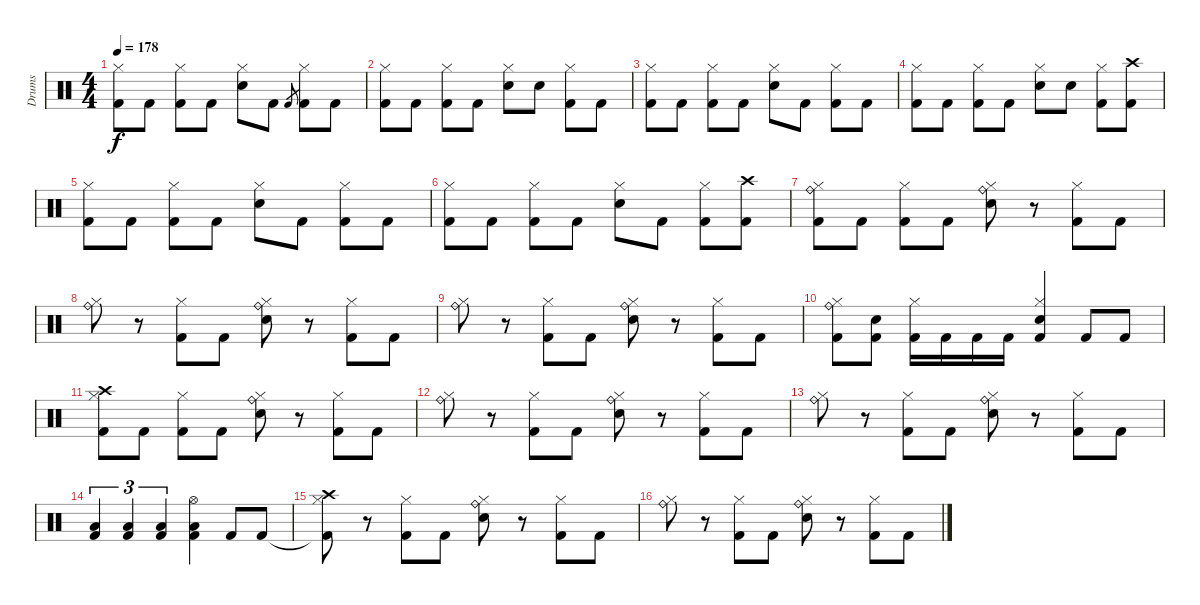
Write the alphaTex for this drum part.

\track ("Drums" "Drums") {instrument percussion}
\staff {score}
\articulation defaults
\ts (4 4)
\tempo 178
\clef neutral
\ks c
("Kick (hit) 2" "Hi-Hat (closed)").8{dy f} "Kick (hit) 2".8 ("Kick (hit) 2" "Hi-Hat (closed)").8 "Kick (hit) 2".8 ("Snare (hit) 2" "Hi-Hat (closed)").8 "Kick (hit) 2".8 "Kick (hit) 2".8{gr} ("Kick (hit) 2" "Hi-Hat (closed)").8 "Kick (hit) 2".8 |
("Kick (hit) 2" "Hi-Hat (closed)").8 "Kick (hit) 2".8 ("Kick (hit) 2" "Hi-Hat (closed)").8 "Kick (hit) 2".8 ("Snare (hit) 2" "Hi-Hat (closed)").8 "Snare (hit) 2".8 ("Kick (hit) 2" "Hi-Hat (closed)").8 "Kick (hit) 2".8 |
("Kick (hit) 2" "Hi-Hat (closed)").8 "Kick (hit) 2".8 ("Kick (hit) 2" "Hi-Hat (closed)").8 "Kick (hit) 2".8 ("Snare (hit) 2" "Hi-Hat (closed)").8 "Kick (hit) 2".8 ("Kick (hit) 2" "Hi-Hat (closed)").8 "Kick (hit) 2".8 |
("Kick (hit) 2" "Hi-Hat (closed)").8 "Kick (hit) 2".8 ("Kick (hit) 2" "Hi-Hat (closed)").8 "Kick (hit) 2".8 ("Snare (hit) 2" "Hi-Hat (closed)").8 "Snare (hit) 2".8 ("Kick (hit) 2" "Hi-Hat (closed)").8 ("Kick (hit) 2" "Crash high (hit)").8 |
("Kick (hit) 2" "Hi-Hat (closed)").8 "Kick (hit) 2".8 ("Kick (hit) 2" "Hi-Hat (closed)").8 "Kick (hit) 2".8 ("Snare (hit) 2" "Hi-Hat (closed)").8 "Kick (hit) 2".8 ("Kick (hit) 2" "Hi-Hat (closed)").8 "Kick (hit) 2".8 |
("Kick (hit) 2" "Hi-Hat (closed)").8 "Kick (hit) 2".8 ("Kick (hit) 2" "Hi-Hat (closed)").8 "Kick (hit) 2".8 ("Snare (hit) 2" "Hi-Hat (closed)").8 "Kick (hit) 2".8 ("Kick (hit) 2" "Hi-Hat (closed)").8 ("Kick (hit) 2" "Crash high (hit)").8 |
("Kick (hit) 2" "Hi-Hat (closed)" "Ride (bell)").8 "Kick (hit) 2".8 ("Kick (hit) 2" "Hi-Hat (closed)").8 "Kick (hit) 2".8 ("Snare (hit) 2" "Hi-Hat (closed)" "Ride (bell)").8 r.8 ("Kick (hit) 2" "Hi-Hat (closed)").8 "Kick (hit) 2".8 |
("Hi-Hat (closed)" "Ride (bell)").8 r.8 ("Kick (hit) 2" "Hi-Hat (closed)").8 "Kick (hit) 2".8 ("Snare (hit) 2" "Hi-Hat (closed)" "Ride (bell)").8 r.8 ("Kick (hit) 2" "Hi-Hat (closed)").8 "Kick (hit) 2".8 |
("Hi-Hat (closed)" "Ride (bell)").8 r.8 ("Kick (hit) 2" "Hi-Hat (closed)").8 "Kick (hit) 2".8 ("Snare (hit) 2" "Hi-Hat (closed)" "Ride (bell)").8 r.8 ("Kick (hit) 2" "Hi-Hat (closed)").8 "Kick (hit) 2".8 |
("Kick (hit) 2" "Hi-Hat (closed)" "Ride (bell)").8 ("Kick (hit) 2" "Snare (hit) 2").8 ("Kick (hit) 2" "Hi-Hat (closed)").16 "Kick (hit) 2".16 "Kick (hit) 2".16 "Kick (hit) 2".16 ("Kick (hit) 2" "Snare (hit) 2" "Hi-Hat (closed)").4 "Kick (hit) 2".8 "Kick (hit) 2".8 |
("Kick (hit) 2" "Hi-Hat (closed)" "Crash high (hit)").8 "Kick (hit) 2".8 ("Kick (hit) 2" "Hi-Hat (closed)").8 "Kick (hit) 2".8 ("Snare (hit) 2" "Hi-Hat (closed)" "Ride (bell)").8 r.8 ("Kick (hit) 2" "Hi-Hat (closed)").8 "Kick (hit) 2".8 |
("Hi-Hat (closed)" "Ride (bell)").8 r.8 ("Kick (hit) 2" "Hi-Hat (closed)").8 "Kick (hit) 2".8 ("Snare (hit) 2" "Hi-Hat (closed)" "Ride (bell)").8 r.8 ("Kick (hit) 2" "Hi-Hat (closed)").8 "Kick (hit) 2".8 |
("Hi-Hat (closed)" "Ride (bell)").8 r.8 ("Kick (hit) 2" "Hi-Hat (closed)").8 "Kick (hit) 2".8 ("Snare (hit) 2" "Hi-Hat (closed)" "Ride (bell)").8 r.8 ("Kick (hit) 2" "Hi-Hat (closed)").8 "Kick (hit) 2".8 |
("Kick (hit) 2" "Low Floor Tom (hit)").4{tu (3 2)} ("Kick (hit) 2" "Low Floor Tom (hit)").4{tu (3 2)} ("Kick (hit) 2" "Low Floor Tom (hit)").4{tu (3 2)} ("Kick (hit) 2" "Low Floor Tom (hit)" "Hi-Hat (open)").4 "Kick (hit) 2".8 "Kick (hit) 2".8 |
("Kick (hit) 2"{t} "Hi-Hat (closed)" "Crash high (hit)").8 r.8 ("Kick (hit) 2" "Hi-Hat (closed)").8 "Kick (hit) 2".8 ("Snare (hit) 2" "Hi-Hat (closed)" "Ride (bell)").8 r.8 ("Kick (hit) 2" "Hi-Hat (closed)").8 "Kick (hit) 2".8 |
("Hi-Hat (closed)" "Ride (bell)").8 r.8 ("Kick (hit) 2" "Hi-Hat (closed)").8 "Kick (hit) 2".8 ("Snare (hit) 2" "Hi-Hat (closed)" "Ride (bell)").8 r.8 ("Kick (hit) 2" "Hi-Hat (closed)").8 "Kick (hit) 2".8
